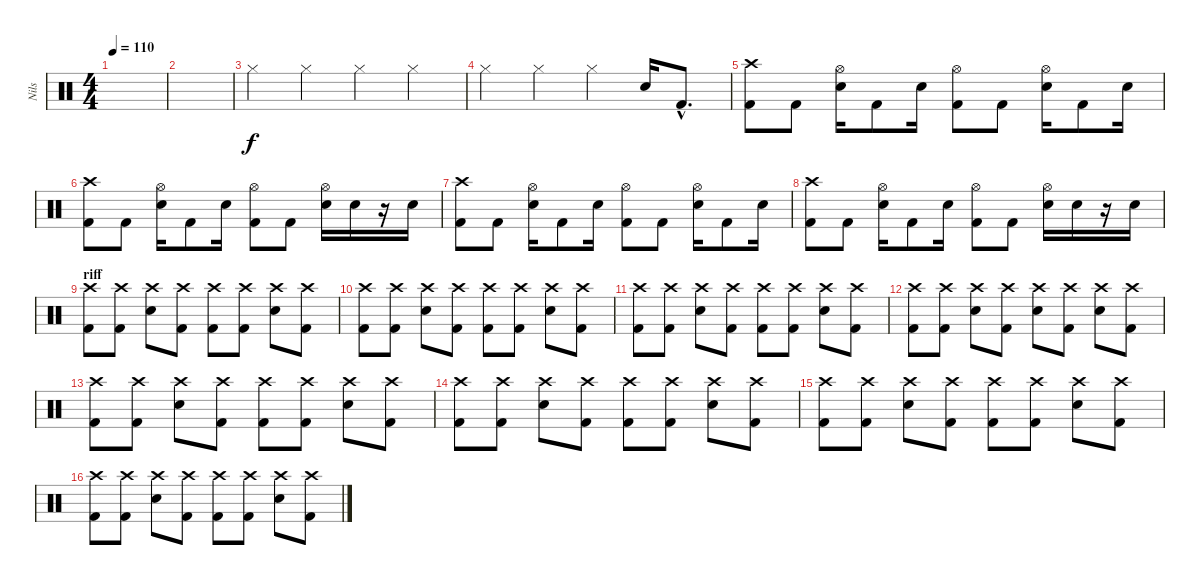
\track ("Nils" "Nils") {instrument percussion}
\staff {score}
\articulation defaults
\ts (4 4)
\tempo 110
\clef neutral
\ks c
|
|
"Hi-Hat (closed)".4 "Hi-Hat (closed)".4 "Hi-Hat (closed)".4 "Hi-Hat (closed)".4 |
"Hi-Hat (closed)".4 "Hi-Hat (closed)".4 "Hi-Hat (closed)".4 "Snare (hit) 2".16 "Kick (hit) 2"{hac}.8{d} |
("Crash high (hit)" "Kick (hit) 2").8 "Kick (hit) 2".8 ("Hi-Hat (open)" "Snare (hit) 2").16 "Kick (hit) 2".8 "Snare (hit) 2".16 ("Hi-Hat (open)" "Kick (hit) 2").8 "Kick (hit) 2".8 ("Hi-Hat (open)" "Snare (hit) 2").16 "Kick (hit) 2".8 "Snare (hit) 2".16 |
("Crash high (hit)" "Kick (hit) 2").8 "Kick (hit) 2".8 ("Hi-Hat (open)" "Snare (hit) 2").16 "Kick (hit) 2".8 "Snare (hit) 2".16 ("Hi-Hat (open)" "Kick (hit) 2").8 "Kick (hit) 2".8 ("Hi-Hat (open)" "Snare (hit) 2").16 "Snare (hit) 2".16 r.16 "Snare (hit) 2".16 |
("Crash high (hit)" "Kick (hit) 2").8 "Kick (hit) 2".8 ("Hi-Hat (open)" "Snare (hit) 2").16 "Kick (hit) 2".8 "Snare (hit) 2".16 ("Hi-Hat (open)" "Kick (hit) 2").8 "Kick (hit) 2".8 ("Hi-Hat (open)" "Snare (hit) 2").16 "Kick (hit) 2".8 "Snare (hit) 2".16 |
("Crash high (hit)" "Kick (hit) 2").8 "Kick (hit) 2".8 ("Hi-Hat (open)" "Snare (hit) 2").16 "Kick (hit) 2".8 "Snare (hit) 2".16 ("Hi-Hat (open)" "Kick (hit) 2").8 "Kick (hit) 2".8 ("Hi-Hat (open)" "Snare (hit) 2").16 "Snare (hit) 2".16 r.16 "Snare (hit) 2".16 |
\section ("" "riff")
("Crash high (hit)" "Kick (hit) 2").8 ("Crash high (hit)" "Kick (hit) 2").8 ("Crash high (hit)" "Snare (hit) 2").8 ("Crash high (hit)" "Kick (hit) 2").8 ("Crash high (hit)" "Kick (hit) 2").8 ("Crash high (hit)" "Kick (hit) 2").8 ("Crash high (hit)" "Snare (hit) 2").8 ("Crash high (hit)" "Kick (hit) 2").8 |
("Crash high (hit)" "Kick (hit) 2").8 ("Crash high (hit)" "Kick (hit) 2").8 ("Crash high (hit)" "Snare (hit) 2").8 ("Crash high (hit)" "Kick (hit) 2").8 ("Crash high (hit)" "Kick (hit) 2").8 ("Crash high (hit)" "Kick (hit) 2").8 ("Crash high (hit)" "Snare (hit) 2").8 ("Crash high (hit)" "Kick (hit) 2").8 |
("Crash high (hit)" "Kick (hit) 2").8 ("Crash high (hit)" "Kick (hit) 2").8 ("Crash high (hit)" "Snare (hit) 2").8 ("Crash high (hit)" "Kick (hit) 2").8 ("Crash high (hit)" "Kick (hit) 2").8 ("Crash high (hit)" "Kick (hit) 2").8 ("Crash high (hit)" "Snare (hit) 2").8 ("Crash high (hit)" "Kick (hit) 2").8 |
("Crash high (hit)" "Kick (hit) 2").8 ("Crash high (hit)" "Kick (hit) 2").8 ("Crash high (hit)" "Snare (hit) 2").8 ("Crash high (hit)" "Kick (hit) 2").8 ("Crash high (hit)" "Snare (hit) 2").8 ("Crash high (hit)" "Kick (hit) 2").8 ("Crash high (hit)" "Snare (hit) 2").8 ("Crash high (hit)" "Kick (hit) 2").8 |
("Crash high (hit)" "Kick (hit) 2").8 ("Crash high (hit)" "Kick (hit) 2").8 ("Crash high (hit)" "Snare (hit) 2").8 ("Crash high (hit)" "Kick (hit) 2").8 ("Crash high (hit)" "Kick (hit) 2").8 ("Crash high (hit)" "Kick (hit) 2").8 ("Crash high (hit)" "Snare (hit) 2").8 ("Crash high (hit)" "Kick (hit) 2").8 |
("Crash high (hit)" "Kick (hit) 2").8 ("Crash high (hit)" "Kick (hit) 2").8 ("Crash high (hit)" "Snare (hit) 2").8 ("Crash high (hit)" "Kick (hit) 2").8 ("Crash high (hit)" "Kick (hit) 2").8 ("Crash high (hit)" "Kick (hit) 2").8 ("Crash high (hit)" "Snare (hit) 2").8 ("Crash high (hit)" "Kick (hit) 2").8 |
("Crash high (hit)" "Kick (hit) 2").8 ("Crash high (hit)" "Kick (hit) 2").8 ("Crash high (hit)" "Snare (hit) 2").8 ("Crash high (hit)" "Kick (hit) 2").8 ("Crash high (hit)" "Kick (hit) 2").8 ("Crash high (hit)" "Kick (hit) 2").8 ("Crash high (hit)" "Snare (hit) 2").8 ("Crash high (hit)" "Kick (hit) 2").8 |
("Crash high (hit)" "Kick (hit) 2").8 ("Crash high (hit)" "Kick (hit) 2").8 ("Crash high (hit)" "Snare (hit) 2").8 ("Crash high (hit)" "Kick (hit) 2").8 ("Crash high (hit)" "Kick (hit) 2").8 ("Crash high (hit)" "Kick (hit) 2").8 ("Crash high (hit)" "Snare (hit) 2").8 ("Crash high (hit)" "Kick (hit) 2").8
